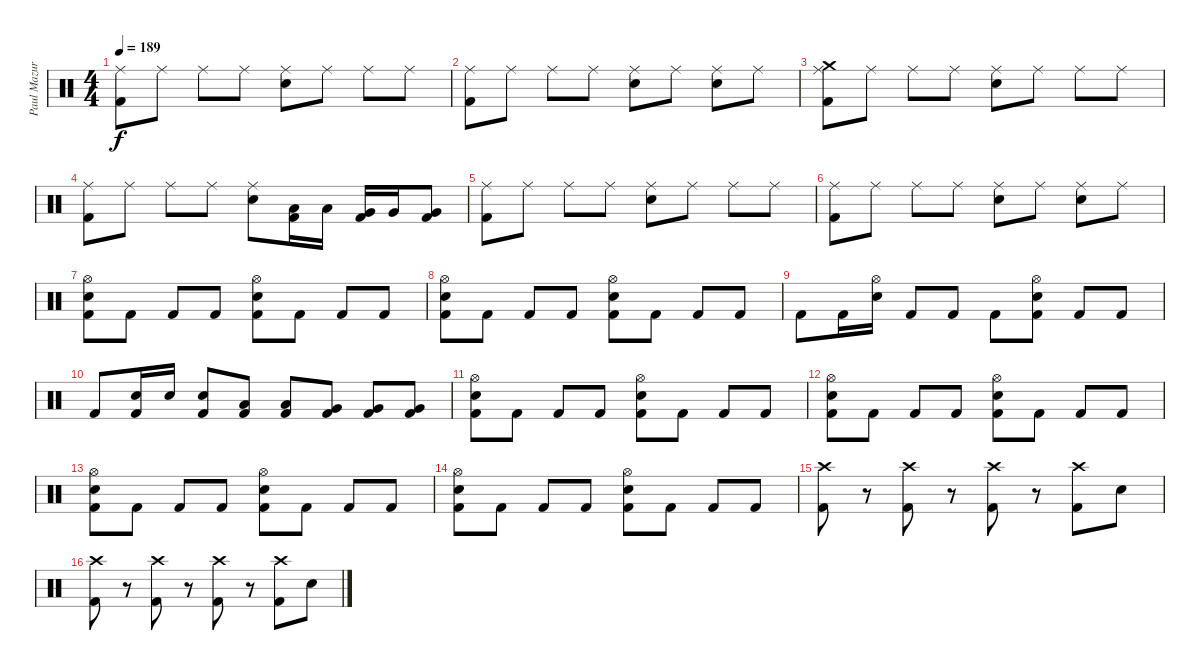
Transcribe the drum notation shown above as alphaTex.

\track ("Paul Mazurkevitch" "Paul Mazur") {instrument percussion}
\staff {score}
\articulation defaults
\ts (4 4)
\tempo 189
\clef neutral
\ks c
("Ride (middle)" "Kick (hit) 2").8{dy f} "Ride (middle)".8 "Ride (middle)".8 "Ride (middle)".8 ("Ride (middle)" "Electric Snare (hit)").8 "Ride (middle)".8 "Ride (middle)".8 "Ride (middle)".8 |
("Ride (middle)" "Kick (hit) 2").8 "Ride (middle)".8 "Ride (middle)".8 "Ride (middle)".8 ("Ride (middle)" "Electric Snare (hit)").8 "Ride (middle)".8 ("Ride (middle)" "Electric Snare (hit)").8 "Ride (middle)".8 |
("Crash medium (hit)" "Ride (middle)" "Kick (hit) 2").8 "Ride (middle)".8 "Ride (middle)".8 "Ride (middle)".8 ("Ride (middle)" "Electric Snare (hit)").8 "Ride (middle)".8 "Ride (middle)".8 "Ride (middle)".8 |
("Ride (middle)" "Kick (hit) 2").8 "Ride (middle)".8 "Ride (middle)".8 "Ride (middle)".8 ("Ride (middle)" "Electric Snare (hit)").8 ("Low Tom (hit)" "Kick (hit) 2").16 "Low Tom (hit)".16 ("Very Low Tom (hit)" "Kick (hit) 2").16 "Very Low Tom (hit)".16 ("Very Low Tom (hit)" "Kick (hit) 2").8 |
("Ride (middle)" "Kick (hit) 2").8 "Ride (middle)".8 "Ride (middle)".8 "Ride (middle)".8 ("Ride (middle)" "Electric Snare (hit)").8 "Ride (middle)".8 "Ride (middle)".8 "Ride (middle)".8 |
("Ride (middle)" "Kick (hit) 2").8 "Ride (middle)".8 "Ride (middle)".8 "Ride (middle)".8 ("Ride (middle)" "Electric Snare (hit)").8 "Ride (middle)".8 ("Ride (middle)" "Electric Snare (hit)").8 "Ride (middle)".8 |
("Hi-Hat (open)" "Electric Snare (hit)" "Kick (hit) 2").8 "Kick (hit) 2".8 "Kick (hit) 2".8 "Kick (hit) 2".8 ("Hi-Hat (open)" "Electric Snare (hit)" "Kick (hit) 2").8 "Kick (hit) 2".8 "Kick (hit) 2".8 "Kick (hit) 2".8 |
("Hi-Hat (open)" "Electric Snare (hit)" "Kick (hit) 2").8 "Kick (hit) 2".8 "Kick (hit) 2".8 "Kick (hit) 2".8 ("Hi-Hat (open)" "Electric Snare (hit)" "Kick (hit) 2").8 "Kick (hit) 2".8 "Kick (hit) 2".8 "Kick (hit) 2".8 |
"Kick (hit) 2".8 "Kick (hit) 2".16 ("Hi-Hat (open)" "Electric Snare (hit)").16 "Kick (hit) 2".8 "Kick (hit) 2".8 "Kick (hit) 2".8 ("Hi-Hat (open)" "Electric Snare (hit)" "Kick (hit) 2").8 "Kick (hit) 2".8 "Kick (hit) 2".8 |
"Kick (hit) 2".8 ("Electric Snare (hit)" "Kick (hit) 2").16 "Electric Snare (hit)".16 ("Electric Snare (hit)" "Kick (hit) 2").8 ("Low Tom (hit)" "Kick (hit) 2").8 ("Low Tom (hit)" "Kick (hit) 2").8 ("Very Low Tom (hit)" "Kick (hit) 2").8 ("Very Low Tom (hit)" "Kick (hit) 2").8 ("Very Low Tom (hit)" "Kick (hit) 2").8 |
("Hi-Hat (open)" "Electric Snare (hit)" "Kick (hit) 2").8 "Kick (hit) 2".8 "Kick (hit) 2".8 "Kick (hit) 2".8 ("Hi-Hat (open)" "Electric Snare (hit)" "Kick (hit) 2").8 "Kick (hit) 2".8 "Kick (hit) 2".8 "Kick (hit) 2".8 |
("Hi-Hat (open)" "Electric Snare (hit)" "Kick (hit) 2").8 "Kick (hit) 2".8 "Kick (hit) 2".8 "Kick (hit) 2".8 ("Hi-Hat (open)" "Electric Snare (hit)" "Kick (hit) 2").8 "Kick (hit) 2".8 "Kick (hit) 2".8 "Kick (hit) 2".8 |
("Hi-Hat (open)" "Electric Snare (hit)" "Kick (hit) 2").8 "Kick (hit) 2".8 "Kick (hit) 2".8 "Kick (hit) 2".8 ("Hi-Hat (open)" "Electric Snare (hit)" "Kick (hit) 2").8 "Kick (hit) 2".8 "Kick (hit) 2".8 "Kick (hit) 2".8 |
("Hi-Hat (open)" "Electric Snare (hit)" "Kick (hit) 2").8 "Kick (hit) 2".8 "Kick (hit) 2".8 "Kick (hit) 2".8 ("Hi-Hat (open)" "Electric Snare (hit)" "Kick (hit) 2").8 "Kick (hit) 2".8 "Kick (hit) 2".8 "Kick (hit) 2".8 |
("Crash high (hit)" "Kick (hit) 2").8 r.8{volume 0} ("Crash high (hit)" "Kick (hit) 2").8{volume 16} r.8{volume 0} ("Crash high (hit)" "Kick (hit) 2").8{volume 16} r.8{volume 0} ("Crash high (hit)" "Kick (hit) 2").8{volume 16} "Electric Snare (hit)".8 |
("Crash high (hit)" "Kick (hit) 2").8 r.8{volume 0} ("Crash high (hit)" "Kick (hit) 2").8{volume 16} r.8{volume 0} ("Crash high (hit)" "Kick (hit) 2").8{volume 16} r.8{volume 0} ("Crash high (hit)" "Kick (hit) 2").8{volume 16} "Electric Snare (hit)".8
